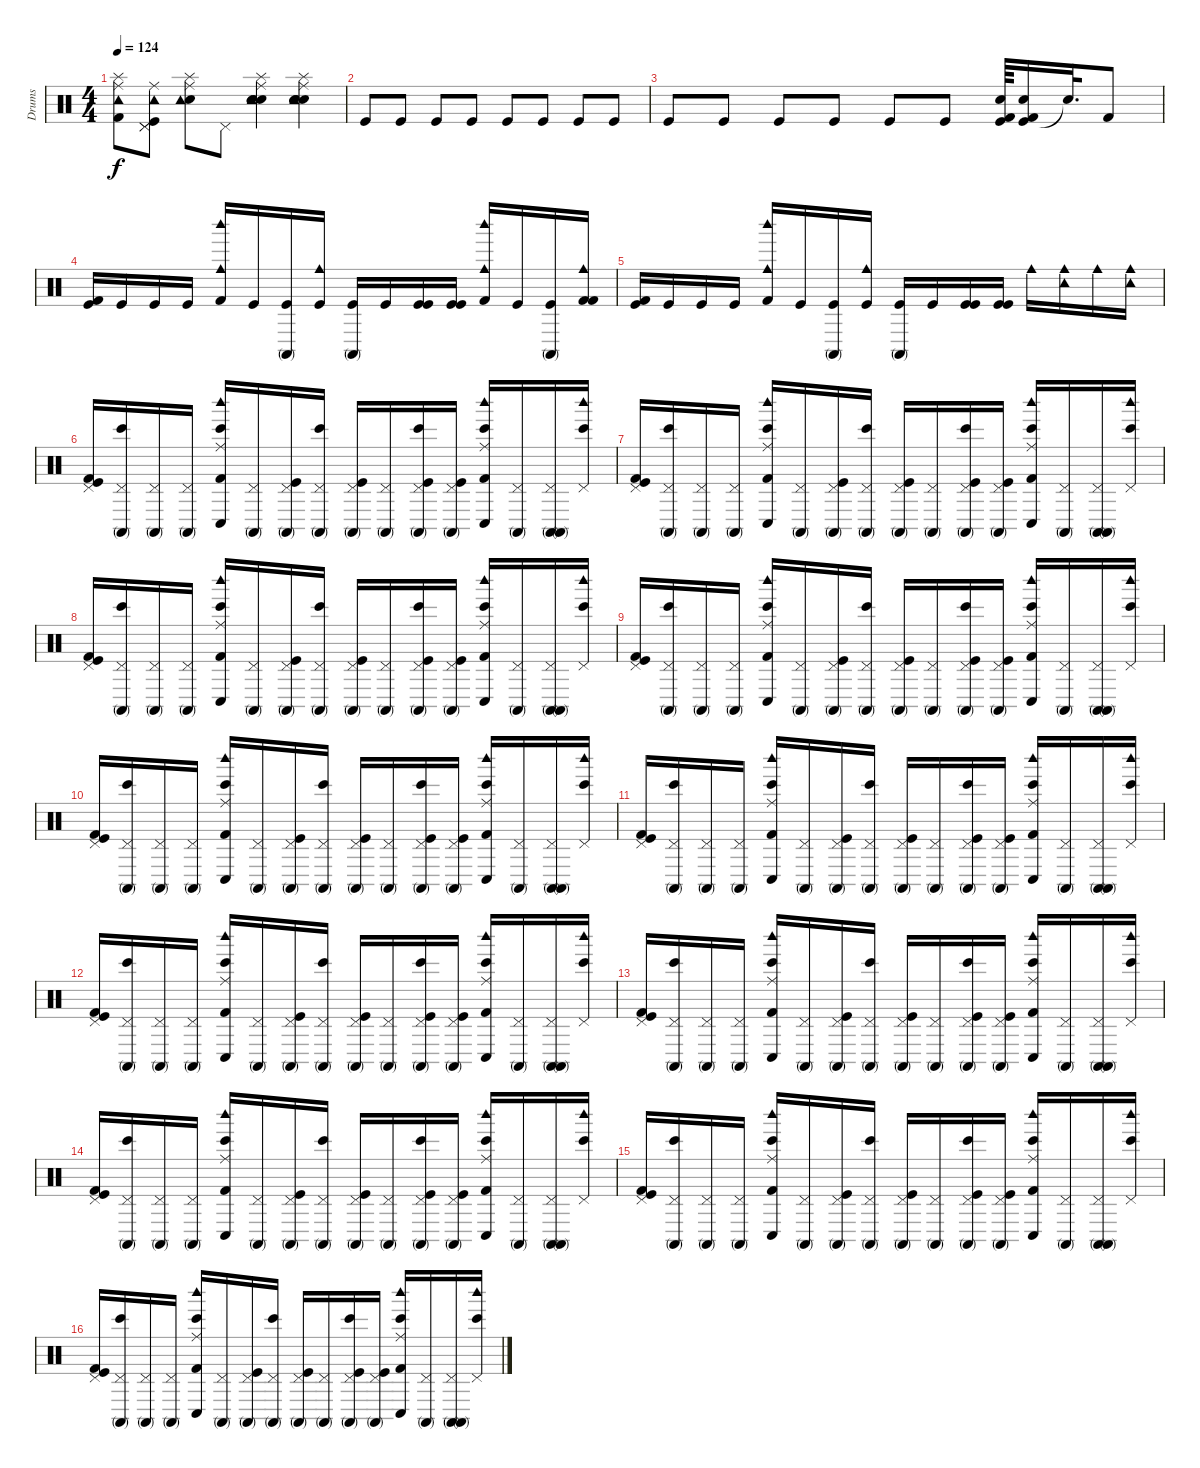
\track ("Drums " "Drums ") {instrument percussion}
\staff {score}
\articulation defaults
\ts (4 4)
\tempo 124
\clef neutral
\ks c
("Splash (hit)" "Ride (middle)" "Kick (hit) 2" "Tambourine (hit)").8{dy f} ("Pedal Hi-Hat (hit)" "Ride (middle)" "Kick (hit)" "Pedal Hi-Hat (hit)" "Tambourine (hit)").8 ("Splash (hit)" "Ride (middle)" "Electric Snare (hit)" "Tambourine (hit)").8 "Pedal Hi-Hat (hit)".8 ("Splash (hit)" "Ride (middle)" "Electric Snare (hit)" "Snare (hit) 2" "Electric Snare (hit)" "Tambourine (hit)").4 ("Splash (hit)" "Ride (middle)" "Electric Snare (hit)" "Snare (hit) 2" "Electric Snare (hit)" "Tambourine (hit)").4 |
"Kick (hit)".8 "Kick (hit)".8 "Kick (hit)".8 "Kick (hit)".8 "Kick (hit)".8 "Kick (hit)".8 "Kick (hit)".8 "Kick (hit)".8 |
"Kick (hit)".8 "Kick (hit)".8 "Kick (hit)".8 "Kick (hit)".8 "Kick (hit)".8 "Kick (hit)".8 ("Kick (hit)" "Kick (hit) 2" "Snare (hit) 2").64 ("Kick (hit)" "Kick (hit) 2" "Snare (hit) 2").16 "Snare (hit)"{t}.32{d} "Kick (hit) 2".8 |
("Kick (hit)" "Kick (hit) 2").16 "Kick (hit)".16 "Kick (hit)".16 "Kick (hit)".16 ("Cowbell medium (hit)" "Woodblock high (hit)" "Kick (hit) 2").16 "Kick (hit)".16 ("Conga high (mute)" "Kick (hit)").16 ("Cowbell medium (hit)" "Kick (hit)").16 ("Conga high (mute)" "Kick (hit)").16 "Kick (hit)".16 ("Kick (hit)" "Kick (hit)").16 ("Kick (hit)" "Kick (hit)").16 ("Cowbell medium (hit)" "Woodblock high (hit)" "Kick (hit) 2").16 "Kick (hit)".16 ("Kick (hit)" "Conga high (mute)").16 ("Kick (hit) 2" "Kick (hit) 2" "Cowbell medium (hit)").16 |
("Kick (hit)" "Kick (hit) 2").16 "Kick (hit)".16 "Kick (hit)".16 "Kick (hit)".16 ("Cowbell medium (hit)" "Woodblock high (hit)" "Kick (hit) 2").16 "Kick (hit)".16 ("Conga high (mute)" "Kick (hit)").16 ("Cowbell medium (hit)" "Kick (hit)").16 ("Conga high (mute)" "Kick (hit)").16 "Kick (hit)".16 ("Kick (hit)" "Kick (hit)").16 ("Kick (hit)" "Kick (hit)").16 "Cowbell medium (hit)".16 ("Cowbell medium (hit)" "Tambourine (hit)").16 "Cowbell medium (hit)".16 ("Tambourine (hit)" "Cowbell medium (hit)").16 |
("Kick (hit)" "Kick (hit) 2" "Pedal Hi-Hat (hit)").16 ("Conga high (mute)" "Bongo High (hit)" "Pedal Hi-Hat (hit)").16 ("Conga high (mute)" "Pedal Hi-Hat (hit)").16 ("Conga high (mute)" "Pedal Hi-Hat (hit)").16 ("Bongo High (hit)" "Woodblock high (hit)" "Kick (hit) 2" "Conga low (hit)" "Ride (middle)").16 ("Conga high (mute)" "Pedal Hi-Hat (hit)").16 ("Conga high (mute)" "Kick (hit)" "Pedal Hi-Hat (hit)").16 ("Bongo High (hit)" "Conga high (mute)" "Pedal Hi-Hat (hit)").16 ("Conga high (mute)" "Kick (hit)" "Pedal Hi-Hat (hit)").16 ("Conga high (mute)" "Pedal Hi-Hat (hit)").16 ("Kick (hit)" "Conga high (mute)" "Bongo High (hit)" "Pedal Hi-Hat (hit)").16 ("Kick (hit)" "Conga high (mute)" "Pedal Hi-Hat (hit)").16 ("Bongo High (hit)" "Woodblock high (hit)" "Kick (hit) 2" "Conga low (hit)" "Ride (middle)").16 ("Conga high (mute)" "Pedal Hi-Hat (hit)").16 ("Conga high (mute)" "Conga high (mute)" "Pedal Hi-Hat (hit)").16 ("Woodblock high (hit)" "Bongo High (hit)" "Pedal Hi-Hat (hit)").16 |
("Kick (hit)" "Kick (hit) 2" "Pedal Hi-Hat (hit)").16 ("Conga high (mute)" "Bongo High (hit)" "Pedal Hi-Hat (hit)").16 ("Conga high (mute)" "Pedal Hi-Hat (hit)").16 ("Conga high (mute)" "Pedal Hi-Hat (hit)").16 ("Bongo High (hit)" "Woodblock high (hit)" "Kick (hit) 2" "Conga low (hit)" "Ride (middle)").16 ("Conga high (mute)" "Pedal Hi-Hat (hit)").16 ("Conga high (mute)" "Kick (hit)" "Pedal Hi-Hat (hit)").16 ("Bongo High (hit)" "Conga high (mute)" "Pedal Hi-Hat (hit)").16 ("Conga high (mute)" "Kick (hit)" "Pedal Hi-Hat (hit)").16 ("Conga high (mute)" "Pedal Hi-Hat (hit)").16 ("Kick (hit)" "Conga high (mute)" "Bongo High (hit)" "Pedal Hi-Hat (hit)").16 ("Kick (hit)" "Conga high (mute)" "Pedal Hi-Hat (hit)").16 ("Bongo High (hit)" "Woodblock high (hit)" "Kick (hit) 2" "Conga low (hit)" "Ride (middle)").16 ("Conga high (mute)" "Pedal Hi-Hat (hit)").16 ("Conga high (mute)" "Conga high (mute)" "Pedal Hi-Hat (hit)").16 ("Woodblock high (hit)" "Bongo High (hit)" "Pedal Hi-Hat (hit)").16 |
("Kick (hit)" "Kick (hit) 2" "Pedal Hi-Hat (hit)").16 ("Conga high (mute)" "Bongo High (hit)" "Pedal Hi-Hat (hit)").16 ("Conga high (mute)" "Pedal Hi-Hat (hit)").16 ("Conga high (mute)" "Pedal Hi-Hat (hit)").16 ("Bongo High (hit)" "Woodblock high (hit)" "Kick (hit) 2" "Conga low (hit)" "Ride (middle)").16 ("Conga high (mute)" "Pedal Hi-Hat (hit)").16 ("Conga high (mute)" "Kick (hit)" "Pedal Hi-Hat (hit)").16 ("Bongo High (hit)" "Conga high (mute)" "Pedal Hi-Hat (hit)").16 ("Conga high (mute)" "Kick (hit)" "Pedal Hi-Hat (hit)").16 ("Conga high (mute)" "Pedal Hi-Hat (hit)").16 ("Kick (hit)" "Conga high (mute)" "Bongo High (hit)" "Pedal Hi-Hat (hit)").16 ("Kick (hit)" "Conga high (mute)" "Pedal Hi-Hat (hit)").16 ("Bongo High (hit)" "Woodblock high (hit)" "Kick (hit) 2" "Conga low (hit)" "Ride (middle)").16 ("Conga high (mute)" "Pedal Hi-Hat (hit)").16 ("Conga high (mute)" "Conga high (mute)" "Pedal Hi-Hat (hit)").16 ("Woodblock high (hit)" "Bongo High (hit)" "Pedal Hi-Hat (hit)").16 |
("Kick (hit)" "Kick (hit) 2" "Pedal Hi-Hat (hit)").16 ("Conga high (mute)" "Bongo High (hit)" "Pedal Hi-Hat (hit)").16 ("Conga high (mute)" "Pedal Hi-Hat (hit)").16 ("Conga high (mute)" "Pedal Hi-Hat (hit)").16 ("Bongo High (hit)" "Woodblock high (hit)" "Kick (hit) 2" "Conga low (hit)" "Ride (middle)").16 ("Conga high (mute)" "Pedal Hi-Hat (hit)").16 ("Conga high (mute)" "Kick (hit)" "Pedal Hi-Hat (hit)").16 ("Bongo High (hit)" "Conga high (mute)" "Pedal Hi-Hat (hit)").16 ("Conga high (mute)" "Kick (hit)" "Pedal Hi-Hat (hit)").16 ("Conga high (mute)" "Pedal Hi-Hat (hit)").16 ("Kick (hit)" "Conga high (mute)" "Bongo High (hit)" "Pedal Hi-Hat (hit)").16 ("Kick (hit)" "Conga high (mute)" "Pedal Hi-Hat (hit)").16 ("Bongo High (hit)" "Woodblock high (hit)" "Kick (hit) 2" "Conga low (hit)" "Ride (middle)").16 ("Conga high (mute)" "Pedal Hi-Hat (hit)").16 ("Conga high (mute)" "Conga high (mute)" "Pedal Hi-Hat (hit)").16 ("Woodblock high (hit)" "Bongo High (hit)" "Pedal Hi-Hat (hit)").16 |
("Kick (hit)" "Kick (hit) 2" "Pedal Hi-Hat (hit)").16 ("Conga high (mute)" "Bongo High (hit)" "Pedal Hi-Hat (hit)").16 ("Conga high (mute)" "Pedal Hi-Hat (hit)").16 ("Conga high (mute)" "Pedal Hi-Hat (hit)").16 ("Bongo High (hit)" "Woodblock high (hit)" "Kick (hit) 2" "Conga low (hit)" "Ride (middle)").16 ("Conga high (mute)" "Pedal Hi-Hat (hit)").16 ("Conga high (mute)" "Kick (hit)" "Pedal Hi-Hat (hit)").16 ("Bongo High (hit)" "Conga high (mute)" "Pedal Hi-Hat (hit)").16 ("Conga high (mute)" "Kick (hit)" "Pedal Hi-Hat (hit)").16 ("Conga high (mute)" "Pedal Hi-Hat (hit)").16 ("Kick (hit)" "Conga high (mute)" "Bongo High (hit)" "Pedal Hi-Hat (hit)").16 ("Kick (hit)" "Conga high (mute)" "Pedal Hi-Hat (hit)").16 ("Bongo High (hit)" "Woodblock high (hit)" "Kick (hit) 2" "Conga low (hit)" "Ride (middle)").16 ("Conga high (mute)" "Pedal Hi-Hat (hit)").16 ("Conga high (mute)" "Conga high (mute)" "Pedal Hi-Hat (hit)").16 ("Woodblock high (hit)" "Bongo High (hit)" "Pedal Hi-Hat (hit)").16 |
("Kick (hit)" "Kick (hit) 2" "Pedal Hi-Hat (hit)").16 ("Conga high (mute)" "Bongo High (hit)" "Pedal Hi-Hat (hit)").16 ("Conga high (mute)" "Pedal Hi-Hat (hit)").16 ("Conga high (mute)" "Pedal Hi-Hat (hit)").16 ("Bongo High (hit)" "Woodblock high (hit)" "Kick (hit) 2" "Conga low (hit)" "Ride (middle)").16 ("Conga high (mute)" "Pedal Hi-Hat (hit)").16 ("Conga high (mute)" "Kick (hit)" "Pedal Hi-Hat (hit)").16 ("Bongo High (hit)" "Conga high (mute)" "Pedal Hi-Hat (hit)").16 ("Conga high (mute)" "Kick (hit)" "Pedal Hi-Hat (hit)").16 ("Conga high (mute)" "Pedal Hi-Hat (hit)").16 ("Kick (hit)" "Conga high (mute)" "Bongo High (hit)" "Pedal Hi-Hat (hit)").16 ("Kick (hit)" "Conga high (mute)" "Pedal Hi-Hat (hit)").16 ("Bongo High (hit)" "Woodblock high (hit)" "Kick (hit) 2" "Conga low (hit)" "Ride (middle)").16 ("Conga high (mute)" "Pedal Hi-Hat (hit)").16 ("Conga high (mute)" "Conga high (mute)" "Pedal Hi-Hat (hit)").16 ("Woodblock high (hit)" "Bongo High (hit)" "Pedal Hi-Hat (hit)").16 |
("Kick (hit)" "Kick (hit) 2" "Pedal Hi-Hat (hit)").16 ("Conga high (mute)" "Bongo High (hit)" "Pedal Hi-Hat (hit)").16 ("Conga high (mute)" "Pedal Hi-Hat (hit)").16 ("Conga high (mute)" "Pedal Hi-Hat (hit)").16 ("Bongo High (hit)" "Woodblock high (hit)" "Kick (hit) 2" "Conga low (hit)" "Ride (middle)").16 ("Conga high (mute)" "Pedal Hi-Hat (hit)").16 ("Conga high (mute)" "Kick (hit)" "Pedal Hi-Hat (hit)").16 ("Bongo High (hit)" "Conga high (mute)" "Pedal Hi-Hat (hit)").16 ("Conga high (mute)" "Kick (hit)" "Pedal Hi-Hat (hit)").16 ("Conga high (mute)" "Pedal Hi-Hat (hit)").16 ("Kick (hit)" "Conga high (mute)" "Bongo High (hit)" "Pedal Hi-Hat (hit)").16 ("Kick (hit)" "Conga high (mute)" "Pedal Hi-Hat (hit)").16 ("Bongo High (hit)" "Woodblock high (hit)" "Kick (hit) 2" "Conga low (hit)" "Ride (middle)").16 ("Conga high (mute)" "Pedal Hi-Hat (hit)").16 ("Conga high (mute)" "Conga high (mute)" "Pedal Hi-Hat (hit)").16 ("Woodblock high (hit)" "Bongo High (hit)" "Pedal Hi-Hat (hit)").16 |
("Kick (hit)" "Kick (hit) 2" "Pedal Hi-Hat (hit)").16 ("Conga high (mute)" "Bongo High (hit)" "Pedal Hi-Hat (hit)").16 ("Conga high (mute)" "Pedal Hi-Hat (hit)").16 ("Conga high (mute)" "Pedal Hi-Hat (hit)").16 ("Bongo High (hit)" "Woodblock high (hit)" "Kick (hit) 2" "Conga low (hit)" "Ride (middle)").16 ("Conga high (mute)" "Pedal Hi-Hat (hit)").16 ("Conga high (mute)" "Kick (hit)" "Pedal Hi-Hat (hit)").16 ("Bongo High (hit)" "Conga high (mute)" "Pedal Hi-Hat (hit)").16 ("Conga high (mute)" "Kick (hit)" "Pedal Hi-Hat (hit)").16 ("Conga high (mute)" "Pedal Hi-Hat (hit)").16 ("Kick (hit)" "Conga high (mute)" "Bongo High (hit)" "Pedal Hi-Hat (hit)").16 ("Kick (hit)" "Conga high (mute)" "Pedal Hi-Hat (hit)").16 ("Bongo High (hit)" "Woodblock high (hit)" "Kick (hit) 2" "Conga low (hit)" "Ride (middle)").16 ("Conga high (mute)" "Pedal Hi-Hat (hit)").16 ("Conga high (mute)" "Conga high (mute)" "Pedal Hi-Hat (hit)").16 ("Woodblock high (hit)" "Bongo High (hit)" "Pedal Hi-Hat (hit)").16 |
("Kick (hit)" "Kick (hit) 2" "Pedal Hi-Hat (hit)").16 ("Conga high (mute)" "Bongo High (hit)" "Pedal Hi-Hat (hit)").16 ("Conga high (mute)" "Pedal Hi-Hat (hit)").16 ("Conga high (mute)" "Pedal Hi-Hat (hit)").16 ("Bongo High (hit)" "Woodblock high (hit)" "Kick (hit) 2" "Conga low (hit)" "Ride (middle)").16 ("Conga high (mute)" "Pedal Hi-Hat (hit)").16 ("Conga high (mute)" "Kick (hit)" "Pedal Hi-Hat (hit)").16 ("Bongo High (hit)" "Conga high (mute)" "Pedal Hi-Hat (hit)").16 ("Conga high (mute)" "Kick (hit)" "Pedal Hi-Hat (hit)").16 ("Conga high (mute)" "Pedal Hi-Hat (hit)").16 ("Kick (hit)" "Conga high (mute)" "Bongo High (hit)" "Pedal Hi-Hat (hit)").16 ("Kick (hit)" "Conga high (mute)" "Pedal Hi-Hat (hit)").16 ("Bongo High (hit)" "Woodblock high (hit)" "Kick (hit) 2" "Conga low (hit)" "Ride (middle)").16 ("Conga high (mute)" "Pedal Hi-Hat (hit)").16 ("Conga high (mute)" "Conga high (mute)" "Pedal Hi-Hat (hit)").16 ("Woodblock high (hit)" "Bongo High (hit)" "Pedal Hi-Hat (hit)").16 |
("Kick (hit)" "Kick (hit) 2" "Pedal Hi-Hat (hit)").16 ("Conga high (mute)" "Bongo High (hit)" "Pedal Hi-Hat (hit)").16 ("Conga high (mute)" "Pedal Hi-Hat (hit)").16 ("Conga high (mute)" "Pedal Hi-Hat (hit)").16 ("Bongo High (hit)" "Woodblock high (hit)" "Kick (hit) 2" "Conga low (hit)" "Ride (middle)").16 ("Conga high (mute)" "Pedal Hi-Hat (hit)").16 ("Conga high (mute)" "Kick (hit)" "Pedal Hi-Hat (hit)").16 ("Bongo High (hit)" "Conga high (mute)" "Pedal Hi-Hat (hit)").16 ("Conga high (mute)" "Kick (hit)" "Pedal Hi-Hat (hit)").16 ("Conga high (mute)" "Pedal Hi-Hat (hit)").16 ("Kick (hit)" "Conga high (mute)" "Bongo High (hit)" "Pedal Hi-Hat (hit)").16 ("Kick (hit)" "Conga high (mute)" "Pedal Hi-Hat (hit)").16 ("Bongo High (hit)" "Woodblock high (hit)" "Kick (hit) 2" "Conga low (hit)" "Ride (middle)").16 ("Conga high (mute)" "Pedal Hi-Hat (hit)").16 ("Conga high (mute)" "Conga high (mute)" "Pedal Hi-Hat (hit)").16 ("Woodblock high (hit)" "Bongo High (hit)" "Pedal Hi-Hat (hit)").16 |
("Kick (hit)" "Kick (hit) 2" "Pedal Hi-Hat (hit)").16 ("Conga high (mute)" "Bongo High (hit)" "Pedal Hi-Hat (hit)").16 ("Conga high (mute)" "Pedal Hi-Hat (hit)").16 ("Conga high (mute)" "Pedal Hi-Hat (hit)").16 ("Bongo High (hit)" "Woodblock high (hit)" "Kick (hit) 2" "Conga low (hit)" "Ride (middle)").16 ("Conga high (mute)" "Pedal Hi-Hat (hit)").16 ("Conga high (mute)" "Kick (hit)" "Pedal Hi-Hat (hit)").16 ("Bongo High (hit)" "Conga high (mute)" "Pedal Hi-Hat (hit)").16 ("Conga high (mute)" "Kick (hit)" "Pedal Hi-Hat (hit)").16 ("Conga high (mute)" "Pedal Hi-Hat (hit)").16 ("Kick (hit)" "Conga high (mute)" "Bongo High (hit)" "Pedal Hi-Hat (hit)").16 ("Kick (hit)" "Conga high (mute)" "Pedal Hi-Hat (hit)").16 ("Bongo High (hit)" "Woodblock high (hit)" "Kick (hit) 2" "Conga low (hit)" "Ride (middle)").16 ("Conga high (mute)" "Pedal Hi-Hat (hit)").16 ("Conga high (mute)" "Conga high (mute)" "Pedal Hi-Hat (hit)").16 ("Woodblock high (hit)" "Bongo High (hit)" "Pedal Hi-Hat (hit)").16
